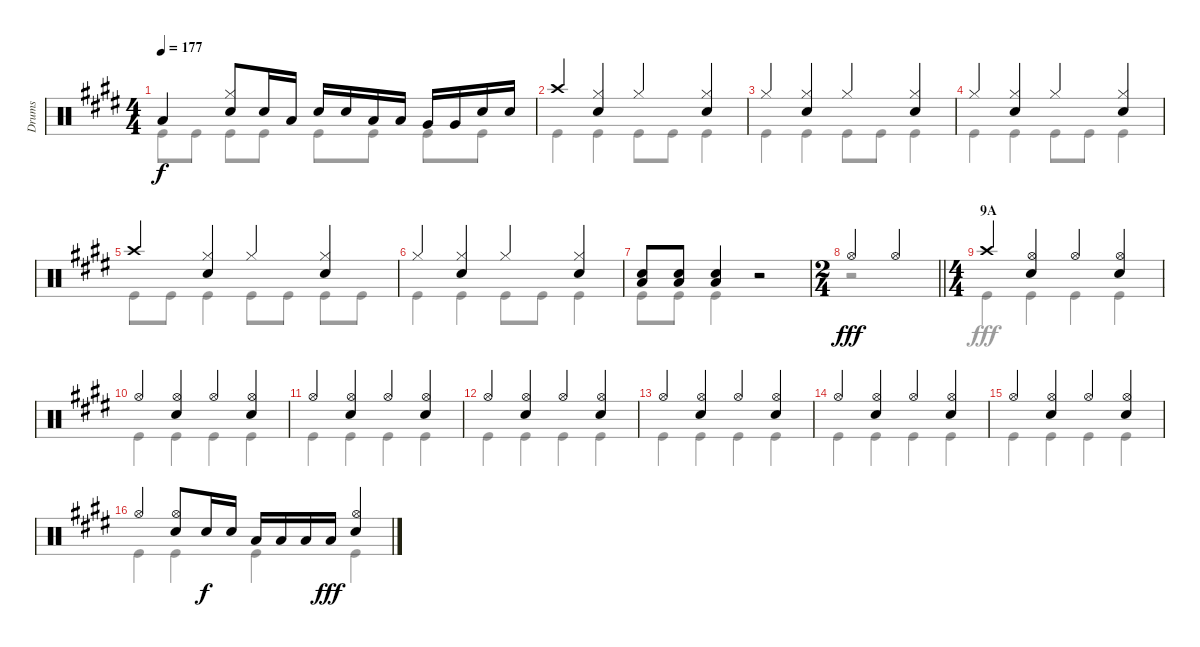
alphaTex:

\track ("Drums" "Drums") {instrument percussion}
\staff {score}
\articulation defaults
\voice
\ts (4 4)
\tempo 177
\clef neutral
\ks e "Low Tom (hit)".4{dy f}
("Hi-Hat (closed)" "Snare (hit) 2").8 "Snare (hit) 2".16 "Low Tom (hit)".16 "Snare (hit) 2".16 "Snare (hit) 2".16 "Low Tom (hit)".16 "Low Tom (hit)".16 "Very Low Tom (hit)".16 "Very Low Tom (hit)".16 "Snare (hit) 2".16 "Snare (hit) 2".16 |
"Crash high (hit)".4 ("Hi-Hat (closed)" "Snare (hit) 2").4 "Hi-Hat (closed)".4 ("Hi-Hat (closed)" "Snare (hit) 2").4 |
"Hi-Hat (closed)".4 ("Hi-Hat (closed)" "Snare (hit) 2").4 "Hi-Hat (closed)".4 ("Hi-Hat (closed)" "Snare (hit) 2").4 |
"Hi-Hat (closed)".4 ("Hi-Hat (closed)" "Snare (hit) 2").4 "Hi-Hat (closed)".4 ("Hi-Hat (closed)" "Snare (hit) 2").4 |
"Crash high (hit)".4 ("Hi-Hat (closed)" "Snare (hit) 2").4 "Hi-Hat (closed)".4 ("Hi-Hat (closed)" "Snare (hit) 2").4 |
"Hi-Hat (closed)".4 ("Hi-Hat (closed)" "Snare (hit) 2").4 "Hi-Hat (closed)".4 ("Hi-Hat (closed)" "Snare (hit) 2").4 |
("Low Tom (hit)" "Snare (hit) 2").8 ("Low Tom (hit)" "Snare (hit) 2").8 ("Low Tom (hit)" "Snare (hit) 2").4 r.2 |
\ts (2 4)
\barLineRight lightlight "Hi-Hat (open)".4{dy fff} "Hi-Hat (open)".4
|
\ts (4 4)
\section ("" "9A")
"Crash high (hit)".4 ("Hi-Hat (open)" "Snare (hit) 2").4 "Hi-Hat (open)".4 ("Hi-Hat (open)" "Snare (hit) 2").4 |
"Hi-Hat (open)".4 ("Hi-Hat (open)" "Snare (hit) 2").4 "Hi-Hat (open)".4 ("Hi-Hat (open)" "Snare (hit) 2").4 |
"Hi-Hat (open)".4 ("Hi-Hat (open)" "Snare (hit) 2").4 "Hi-Hat (open)".4 ("Hi-Hat (open)" "Snare (hit) 2").4 |
"Hi-Hat (open)".4 ("Hi-Hat (open)" "Snare (hit) 2").4 "Hi-Hat (open)".4 ("Hi-Hat (open)" "Snare (hit) 2").4 |
"Hi-Hat (open)".4 ("Hi-Hat (open)" "Snare (hit) 2").4 "Hi-Hat (open)".4 ("Hi-Hat (open)" "Snare (hit) 2").4 |
"Hi-Hat (open)".4 ("Hi-Hat (open)" "Snare (hit) 2").4 "Hi-Hat (open)".4 ("Hi-Hat (open)" "Snare (hit) 2").4 |
"Hi-Hat (open)".4 ("Hi-Hat (open)" "Snare (hit) 2").4 "Hi-Hat (open)".4 ("Hi-Hat (open)" "Snare (hit) 2").4 |
"Hi-Hat (open)".4 ("Hi-Hat (open)" "Snare (hit) 2").8 "Snare (hit) 2".16{dy f} "Snare (hit) 2".16 "Low Tom (hit)".16 "Low Tom (hit)".16 "Low Tom (hit)".16 "Low Tom (hit)".16{dy fff} ("Hi-Hat (open)" "Snare (hit) 2").4
\voice
\clef neutral
\ottava regular
\simile none
\ks e "Kick (hit)".8{dy f} "Kick (hit)".8 "Kick (hit)".8 "Kick (hit)".8 "Kick (hit)".8 "Kick (hit)".8 "Kick (hit)".8 "Kick (hit)".8
|
"Kick (hit)".4 "Kick (hit)".4 "Kick (hit)".8 "Kick (hit)".8 "Kick (hit)".4 |
"Kick (hit)".4 "Kick (hit)".4 "Kick (hit)".8 "Kick (hit)".8 "Kick (hit)".4 |
"Kick (hit)".4 "Kick (hit)".4 "Kick (hit)".8 "Kick (hit)".8 "Kick (hit)".4 |
"Kick (hit)".8 "Kick (hit)".8 "Kick (hit)".4 "Kick (hit)".8 "Kick (hit)".8 "Kick (hit)".8 "Kick (hit)".8 |
"Kick (hit)".4 "Kick (hit)".4 "Kick (hit)".8 "Kick (hit)".8 "Kick (hit)".4 |
"Kick (hit)".8 "Kick (hit)".8 "Kick (hit)".4 r.2 |
\barLineRight lightlight
r.2 |
"Kick (hit)".4{dy fff} "Kick (hit)".4 "Kick (hit)".4 "Kick (hit)".4 |
"Kick (hit)".4 "Kick (hit)".4 "Kick (hit)".4 "Kick (hit)".4 |
"Kick (hit)".4 "Kick (hit)".4 "Kick (hit)".4 "Kick (hit)".4 |
"Kick (hit)".4 "Kick (hit)".4 "Kick (hit)".4 "Kick (hit)".4 |
"Kick (hit)".4 "Kick (hit)".4 "Kick (hit)".4 "Kick (hit)".4 |
"Kick (hit)".4 "Kick (hit)".4 "Kick (hit)".4 "Kick (hit)".4 |
"Kick (hit)".4 "Kick (hit)".4 "Kick (hit)".4 "Kick (hit)".4 |
"Kick (hit)".4 "Kick (hit)".4 "Kick (hit)".4 "Kick (hit)".4
